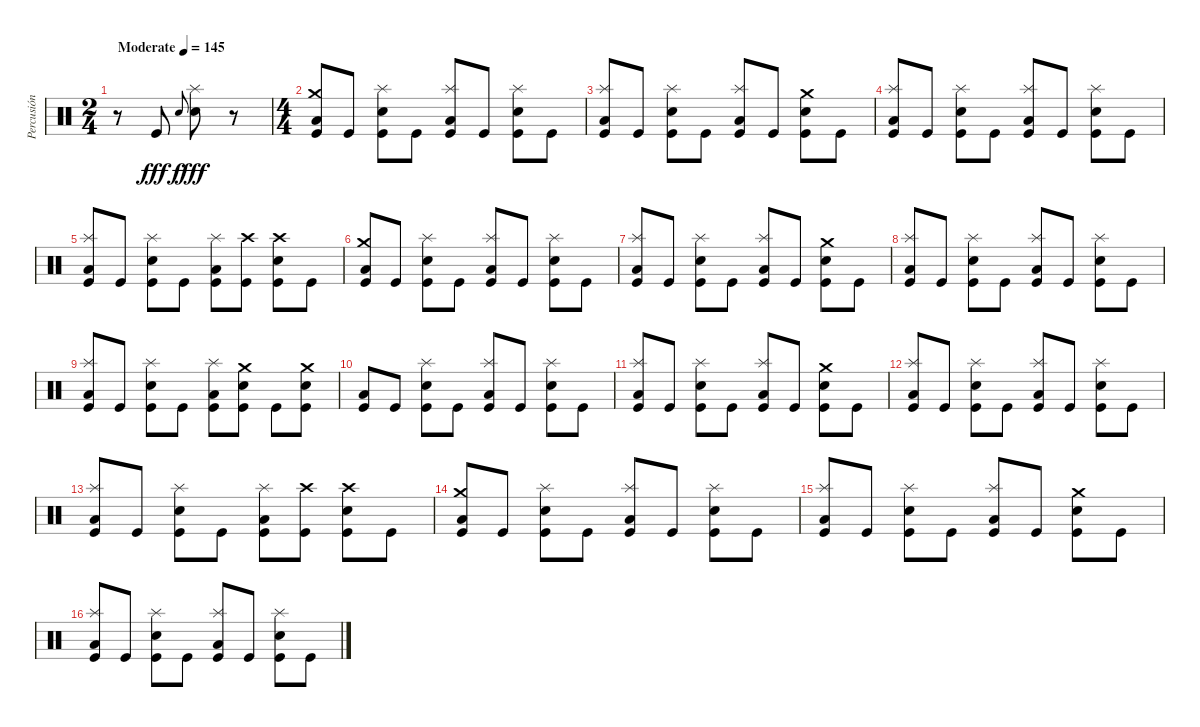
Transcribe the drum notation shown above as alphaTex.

\track ("Percusión" "Percusión") {instrument percussion}
\staff {score}
\articulation defaults
\ts (2 4)
\tempo (145 "Moderate")
\clef neutral
\ks c
r.8{dy fff} "Kick (hit)".8 "Snare (hit) 2".8{gr onbeat dy f} ("Splash (hit)" "Snare (hit) 2").8{dy fff} r.8 |
\ts (4 4)
("Crash medium (hit)" "Low Floor Tom (hit)" "Kick (hit)").8 "Kick (hit)".8 ("Splash (hit)" "Snare (hit) 2" "Kick (hit)").8 "Kick (hit)".8 ("Splash (hit)" "Low Floor Tom (hit)" "Kick (hit)").8 "Kick (hit)".8 ("Splash (hit)" "Snare (hit) 2" "Kick (hit)").8 "Kick (hit)".8 |
("Splash (hit)" "Low Floor Tom (hit)" "Kick (hit)").8 "Kick (hit)".8 ("Splash (hit)" "Snare (hit) 2" "Kick (hit)").8 "Kick (hit)".8 ("Splash (hit)" "Low Floor Tom (hit)" "Kick (hit)").8 "Kick (hit)".8 ("Crash medium (hit)" "Snare (hit) 2" "Kick (hit)").8 "Kick (hit)".8 |
("Splash (hit)" "Low Floor Tom (hit)" "Kick (hit)").8 "Kick (hit)".8 ("Splash (hit)" "Snare (hit) 2" "Kick (hit)").8 "Kick (hit)".8 ("Splash (hit)" "Low Floor Tom (hit)" "Kick (hit)").8 "Kick (hit)".8 ("Splash (hit)" "Snare (hit) 2" "Kick (hit)").8 "Kick (hit)".8 |
("Splash (hit)" "Low Floor Tom (hit)" "Kick (hit)").8 "Kick (hit)".8 ("Splash (hit)" "Snare (hit) 2" "Kick (hit)").8 "Kick (hit)".8 ("Splash (hit)" "Low Floor Tom (hit)" "Kick (hit)").8 ("Crash high (hit)" "Kick (hit)").8 ("Crash high (hit)" "Snare (hit) 2" "Kick (hit)").8 "Kick (hit)".8 |
("Crash medium (hit)" "Low Floor Tom (hit)" "Kick (hit)").8 "Kick (hit)".8 ("Splash (hit)" "Snare (hit) 2" "Kick (hit)").8 "Kick (hit)".8 ("Splash (hit)" "Low Floor Tom (hit)" "Kick (hit)").8 "Kick (hit)".8 ("Splash (hit)" "Snare (hit) 2" "Kick (hit)").8 "Kick (hit)".8 |
("Splash (hit)" "Low Floor Tom (hit)" "Kick (hit)").8 "Kick (hit)".8 ("Splash (hit)" "Snare (hit) 2" "Kick (hit)").8 "Kick (hit)".8 ("Splash (hit)" "Low Floor Tom (hit)" "Kick (hit)").8 "Kick (hit)".8 ("Crash medium (hit)" "Snare (hit) 2" "Kick (hit)").8 "Kick (hit)".8 |
("Splash (hit)" "Low Floor Tom (hit)" "Kick (hit)").8 "Kick (hit)".8 ("Splash (hit)" "Snare (hit) 2" "Kick (hit)").8 "Kick (hit)".8 ("Splash (hit)" "Low Floor Tom (hit)" "Kick (hit)").8 "Kick (hit)".8 ("Splash (hit)" "Snare (hit) 2" "Kick (hit)").8 "Kick (hit)".8 |
("Splash (hit)" "Low Floor Tom (hit)" "Kick (hit)").8 "Kick (hit)".8 ("Splash (hit)" "Snare (hit) 2" "Kick (hit)").8 "Kick (hit)".8 ("Splash (hit)" "Low Floor Tom (hit)" "Kick (hit)").8 ("Crash medium (hit)" "Snare (hit) 2" "Kick (hit)").8 "Kick (hit)".8 ("Crash medium (hit)" "Snare (hit) 2" "Kick (hit)").8 |
("Low Floor Tom (hit)" "Kick (hit)").8 "Kick (hit)".8 ("Splash (hit)" "Snare (hit) 2" "Kick (hit)").8 "Kick (hit)".8 ("Splash (hit)" "Low Floor Tom (hit)" "Kick (hit)").8 "Kick (hit)".8 ("Splash (hit)" "Snare (hit) 2" "Kick (hit)").8 "Kick (hit)".8 |
("Splash (hit)" "Low Floor Tom (hit)" "Kick (hit)").8 "Kick (hit)".8 ("Splash (hit)" "Snare (hit) 2" "Kick (hit)").8 "Kick (hit)".8 ("Splash (hit)" "Low Floor Tom (hit)" "Kick (hit)").8 "Kick (hit)".8 ("Crash medium (hit)" "Snare (hit) 2" "Kick (hit)").8 "Kick (hit)".8 |
("Splash (hit)" "Low Floor Tom (hit)" "Kick (hit)").8 "Kick (hit)".8 ("Splash (hit)" "Snare (hit) 2" "Kick (hit)").8 "Kick (hit)".8 ("Splash (hit)" "Low Floor Tom (hit)" "Kick (hit)").8 "Kick (hit)".8 ("Splash (hit)" "Snare (hit) 2" "Kick (hit)").8 "Kick (hit)".8 |
("Splash (hit)" "Low Floor Tom (hit)" "Kick (hit)").8 "Kick (hit)".8 ("Splash (hit)" "Snare (hit) 2" "Kick (hit)").8 "Kick (hit)".8 ("Splash (hit)" "Low Floor Tom (hit)" "Kick (hit)").8 ("Crash high (hit)" "Kick (hit)").8 ("Crash high (hit)" "Snare (hit) 2" "Kick (hit)").8 "Kick (hit)".8 |
("Crash medium (hit)" "Low Floor Tom (hit)" "Kick (hit)").8 "Kick (hit)".8 ("Splash (hit)" "Snare (hit) 2" "Kick (hit)").8 "Kick (hit)".8 ("Splash (hit)" "Low Floor Tom (hit)" "Kick (hit)").8 "Kick (hit)".8 ("Splash (hit)" "Snare (hit) 2" "Kick (hit)").8 "Kick (hit)".8 |
("Splash (hit)" "Low Floor Tom (hit)" "Kick (hit)").8 "Kick (hit)".8 ("Splash (hit)" "Snare (hit) 2" "Kick (hit)").8 "Kick (hit)".8 ("Splash (hit)" "Low Floor Tom (hit)" "Kick (hit)").8 "Kick (hit)".8 ("Crash medium (hit)" "Snare (hit) 2" "Kick (hit)").8 "Kick (hit)".8 |
("Splash (hit)" "Low Floor Tom (hit)" "Kick (hit)").8 "Kick (hit)".8 ("Splash (hit)" "Snare (hit) 2" "Kick (hit)").8 "Kick (hit)".8 ("Splash (hit)" "Low Floor Tom (hit)" "Kick (hit)").8 "Kick (hit)".8 ("Splash (hit)" "Snare (hit) 2" "Kick (hit)").8 "Kick (hit)".8
